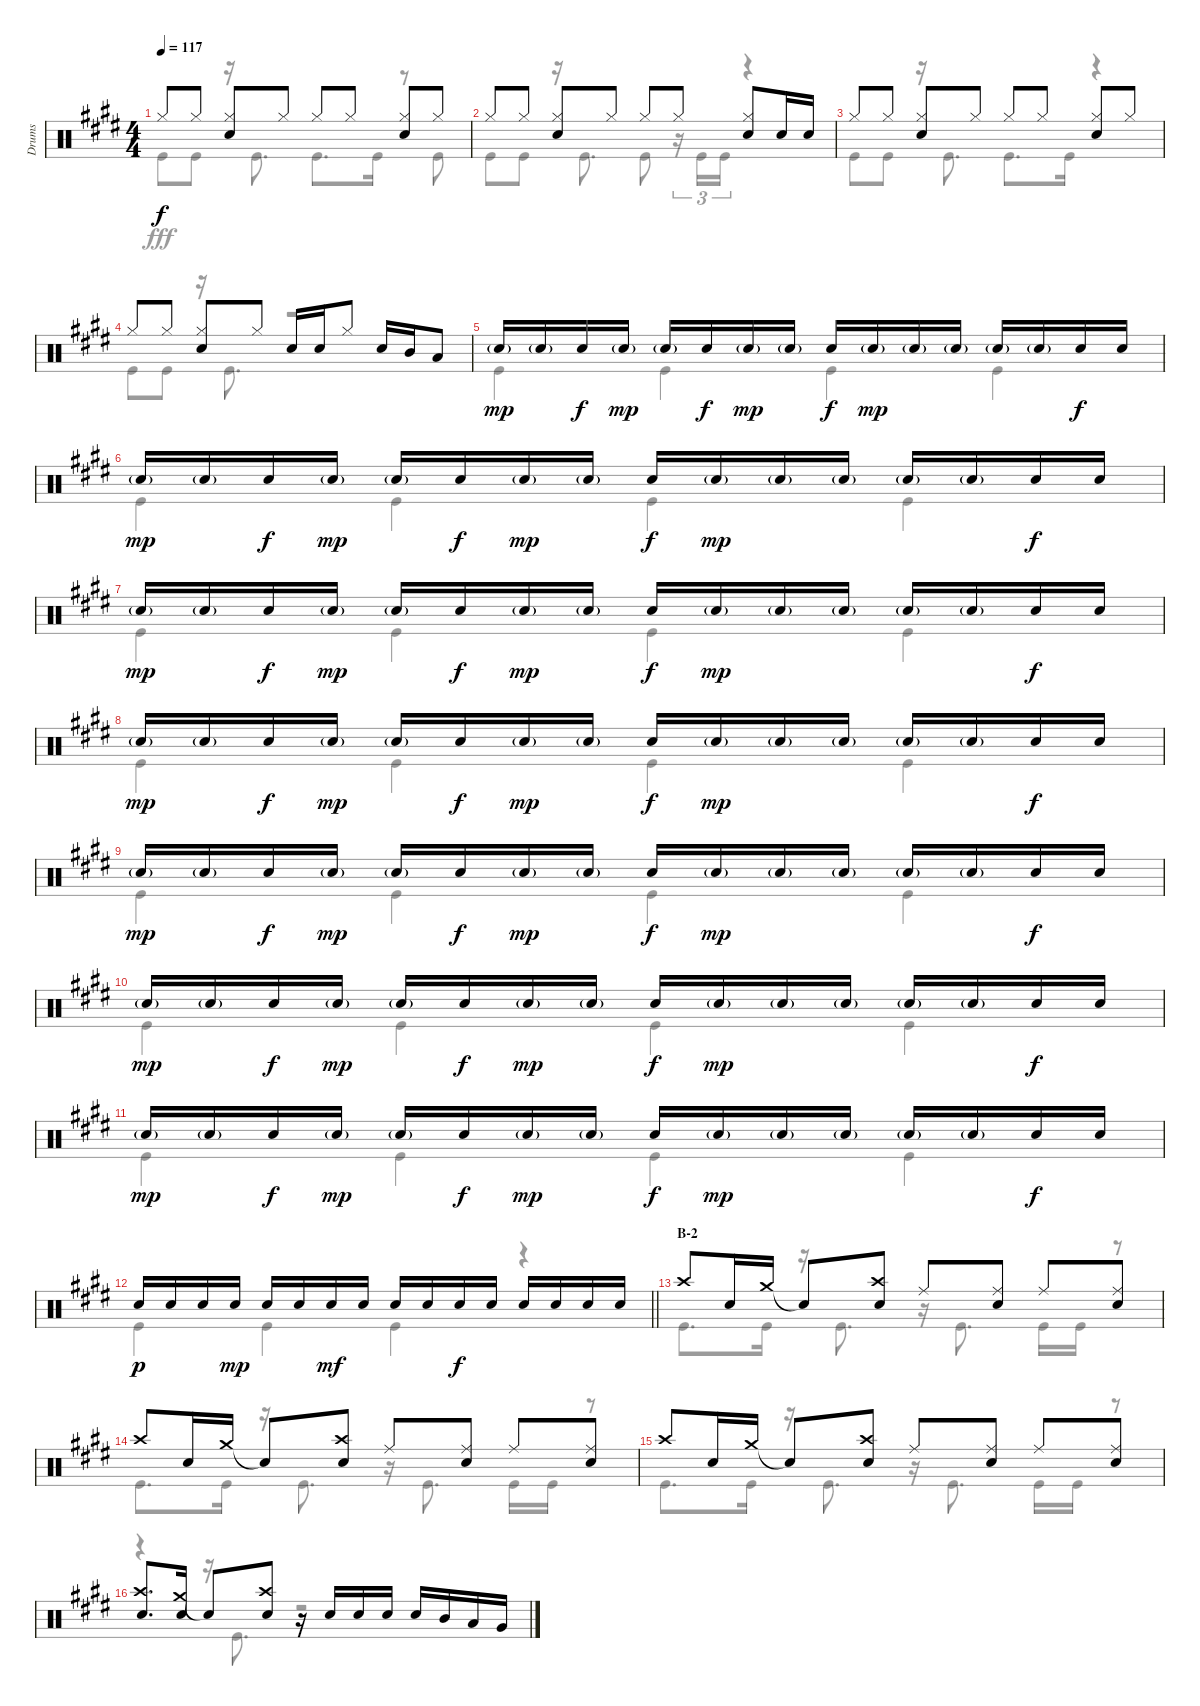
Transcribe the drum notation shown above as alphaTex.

\track ("Drums" "Drums") {instrument percussion}
\staff {score}
\articulation defaults
\voice
\ts (4 4)
\tempo 117
\clef neutral
\ks e "Hi-Hat (closed)".8{dy f} "Hi-Hat (closed)".8
("Hi-Hat (closed)" "Snare (hit) 2").8 "Hi-Hat (closed)".8 "Hi-Hat (closed)".8 "Hi-Hat (closed)".8 ("Hi-Hat (closed)" "Snare (hit) 2").8 "Hi-Hat (closed)".8 |
"Hi-Hat (closed)".8 "Hi-Hat (closed)".8 ("Hi-Hat (closed)" "Snare (hit) 2").8 "Hi-Hat (closed)".8 "Hi-Hat (closed)".8 "Hi-Hat (closed)".8 ("Hi-Hat (closed)" "Snare (hit) 2").8 "Snare (hit) 2".16 "Snare (hit) 2".16 |
"Hi-Hat (closed)".8 "Hi-Hat (closed)".8 ("Hi-Hat (closed)" "Snare (hit) 2").8 "Hi-Hat (closed)".8 "Hi-Hat (closed)".8 "Hi-Hat (closed)".8 ("Hi-Hat (closed)" "Snare (hit) 2").8 "Hi-Hat (closed)".8 |
"Hi-Hat (closed)".8 "Hi-Hat (closed)".8 ("Hi-Hat (closed)" "Snare (hit) 2").8 "Hi-Hat (closed)".8 "Snare (hit) 2".16 "Snare (hit) 2".16 "Hi-Hat (closed)".8 "Snare (hit) 2".16 "Mid Tom (hit)".16 "Low Tom (hit)".8 |
"Snare (hit) 2"{g}.16{dy mp} "Snare (hit) 2"{g}.16 "Snare (hit) 2".16{dy f} "Snare (hit) 2"{g}.16{dy mp} "Snare (hit) 2"{g}.16 "Snare (hit) 2".16{dy f} "Snare (hit) 2"{g}.16{dy mp} "Snare (hit) 2"{g}.16 "Snare (hit) 2".16{dy f} "Snare (hit) 2"{g}.16{dy mp} "Snare (hit) 2"{g}.16 "Snare (hit) 2"{g}.16 "Snare (hit) 2"{g}.16 "Snare (hit) 2"{g}.16 "Snare (hit) 2".16{dy f} "Snare (hit) 2".16 |
"Snare (hit) 2"{g}.16{dy mp} "Snare (hit) 2"{g}.16 "Snare (hit) 2".16{dy f} "Snare (hit) 2"{g}.16{dy mp} "Snare (hit) 2"{g}.16 "Snare (hit) 2".16{dy f} "Snare (hit) 2"{g}.16{dy mp} "Snare (hit) 2"{g}.16 "Snare (hit) 2".16{dy f} "Snare (hit) 2"{g}.16{dy mp} "Snare (hit) 2"{g}.16 "Snare (hit) 2"{g}.16 "Snare (hit) 2"{g}.16 "Snare (hit) 2"{g}.16 "Snare (hit) 2".16{dy f} "Snare (hit) 2".16 |
"Snare (hit) 2"{g}.16{dy mp} "Snare (hit) 2"{g}.16 "Snare (hit) 2".16{dy f} "Snare (hit) 2"{g}.16{dy mp} "Snare (hit) 2"{g}.16 "Snare (hit) 2".16{dy f} "Snare (hit) 2"{g}.16{dy mp} "Snare (hit) 2"{g}.16 "Snare (hit) 2".16{dy f} "Snare (hit) 2"{g}.16{dy mp} "Snare (hit) 2"{g}.16 "Snare (hit) 2"{g}.16 "Snare (hit) 2"{g}.16 "Snare (hit) 2"{g}.16 "Snare (hit) 2".16{dy f} "Snare (hit) 2".16 |
"Snare (hit) 2"{g}.16{dy mp} "Snare (hit) 2"{g}.16 "Snare (hit) 2".16{dy f} "Snare (hit) 2"{g}.16{dy mp} "Snare (hit) 2"{g}.16 "Snare (hit) 2".16{dy f} "Snare (hit) 2"{g}.16{dy mp} "Snare (hit) 2"{g}.16 "Snare (hit) 2".16{dy f} "Snare (hit) 2"{g}.16{dy mp} "Snare (hit) 2"{g}.16 "Snare (hit) 2"{g}.16 "Snare (hit) 2"{g}.16 "Snare (hit) 2"{g}.16 "Snare (hit) 2".16{dy f} "Snare (hit) 2".16 |
"Snare (hit) 2"{g}.16{dy mp} "Snare (hit) 2"{g}.16 "Snare (hit) 2".16{dy f} "Snare (hit) 2"{g}.16{dy mp} "Snare (hit) 2"{g}.16 "Snare (hit) 2".16{dy f} "Snare (hit) 2"{g}.16{dy mp} "Snare (hit) 2"{g}.16 "Snare (hit) 2".16{dy f} "Snare (hit) 2"{g}.16{dy mp} "Snare (hit) 2"{g}.16 "Snare (hit) 2"{g}.16 "Snare (hit) 2"{g}.16 "Snare (hit) 2"{g}.16 "Snare (hit) 2".16{dy f} "Snare (hit) 2".16 |
"Snare (hit) 2"{g}.16{dy mp} "Snare (hit) 2"{g}.16 "Snare (hit) 2".16{dy f} "Snare (hit) 2"{g}.16{dy mp} "Snare (hit) 2"{g}.16 "Snare (hit) 2".16{dy f} "Snare (hit) 2"{g}.16{dy mp} "Snare (hit) 2"{g}.16 "Snare (hit) 2".16{dy f} "Snare (hit) 2"{g}.16{dy mp} "Snare (hit) 2"{g}.16 "Snare (hit) 2"{g}.16 "Snare (hit) 2"{g}.16 "Snare (hit) 2"{g}.16 "Snare (hit) 2".16{dy f} "Snare (hit) 2".16 |
"Snare (hit) 2"{g}.16{dy mp} "Snare (hit) 2"{g}.16 "Snare (hit) 2".16{dy f} "Snare (hit) 2"{g}.16{dy mp} "Snare (hit) 2"{g}.16 "Snare (hit) 2".16{dy f} "Snare (hit) 2"{g}.16{dy mp} "Snare (hit) 2"{g}.16 "Snare (hit) 2".16{dy f} "Snare (hit) 2"{g}.16{dy mp} "Snare (hit) 2"{g}.16 "Snare (hit) 2"{g}.16 "Snare (hit) 2"{g}.16 "Snare (hit) 2"{g}.16 "Snare (hit) 2".16{dy f} "Snare (hit) 2".16 |
\barLineRight lightlight "Snare (hit) 2".16{dy p} "Snare (hit) 2".16 "Snare (hit) 2".16 "Snare (hit) 2".16{dy mp} "Snare (hit) 2".16 "Snare (hit) 2".16 "Snare (hit) 2".16{dy mf} "Snare (hit) 2".16 "Snare (hit) 2".16 "Snare (hit) 2".16 "Snare (hit) 2".16{dy f} "Snare (hit) 2".16 "Snare (hit) 2".16 "Snare (hit) 2".16 "Snare (hit) 2".16 "Snare (hit) 2".16
|
\section ("" "B-2")
"Crash high (hit)".8 "Snare (hit) 2".16 "Crash medium (hit)".16 "Snare (hit)"{t}.8 ("Crash high (hit)" "Snare (hit) 2").8 "Ride (middle)".8 ("Ride (middle)" "Snare (hit) 2").8 "Ride (middle)".8 ("Ride (middle)" "Snare (hit) 2").8 |
"Crash high (hit)".8 "Snare (hit) 2".16 "Crash medium (hit)".16 "Snare (hit)"{t}.8 ("Crash high (hit)" "Snare (hit) 2").8 "Ride (middle)".8 ("Ride (middle)" "Snare (hit) 2").8 "Ride (middle)".8 ("Ride (middle)" "Snare (hit) 2").8 |
"Crash high (hit)".8 "Snare (hit) 2".16 "Crash medium (hit)".16 "Snare (hit)"{t}.8 ("Crash high (hit)" "Snare (hit) 2").8 "Ride (middle)".8 ("Ride (middle)" "Snare (hit) 2").8 "Ride (middle)".8 ("Ride (middle)" "Snare (hit) 2").8 |
("Crash high (hit)" "Snare (hit) 2").8{d} ("Crash medium (hit)" "Snare (hit) 2").16 "Snare (hit)"{t}.8 ("Crash high (hit)" "Snare (hit) 2").8 r.16 "Snare (hit) 2".16 "Snare (hit) 2".16 "Snare (hit) 2".16 "Snare (hit) 2".16 "Mid Tom (hit)".16 "Low Tom (hit)".16 "Very Low Tom (hit)".16
\voice
\clef neutral
\ottava regular
\simile none
\ks e "Kick (hit)".8{dy fff} "Kick (hit)".8
r.16 "Kick (hit)".8{d} "Kick (hit)".8{d} "Kick (hit)".16 r.8 "Kick (hit)".8 |
"Kick (hit)".8 "Kick (hit)".8 r.16 "Kick (hit)".8{d} "Kick (hit)".8 r.16{tu (3 2)} "Kick (hit)".16{tu (3 2)} "Kick (hit)".16{tu (3 2)} r.4 |
"Kick (hit)".8 "Kick (hit)".8 r.16 "Kick (hit)".8{d} "Kick (hit)".8{d} "Kick (hit)".16 r.4 |
"Kick (hit)".8 "Kick (hit)".8 r.16 "Kick (hit)".8{d} r.2 |
"Kick (hit)".4 "Kick (hit)".4 "Kick (hit)".4 "Kick (hit)".4 |
"Kick (hit)".4 "Kick (hit)".4 "Kick (hit)".4 "Kick (hit)".4 |
"Kick (hit)".4 "Kick (hit)".4 "Kick (hit)".4 "Kick (hit)".4 |
"Kick (hit)".4 "Kick (hit)".4 "Kick (hit)".4 "Kick (hit)".4 |
"Kick (hit)".4 "Kick (hit)".4 "Kick (hit)".4 "Kick (hit)".4 |
"Kick (hit)".4 "Kick (hit)".4 "Kick (hit)".4 "Kick (hit)".4 |
"Kick (hit)".4 "Kick (hit)".4 "Kick (hit)".4 "Kick (hit)".4 |
\barLineRight lightlight "Kick (hit)".4 "Kick (hit)".4 "Kick (hit)".4
r.4 |
"Kick (hit)".8{d} "Kick (hit)".16 r.16 "Kick (hit)".8{d} r.16 "Kick (hit)".8{d} "Kick (hit)".16 "Kick (hit)".16 r.8 |
"Kick (hit)".8{d} "Kick (hit)".16 r.16 "Kick (hit)".8{d} r.16 "Kick (hit)".8{d} "Kick (hit)".16 "Kick (hit)".16 r.8 |
"Kick (hit)".8{d} "Kick (hit)".16 r.16 "Kick (hit)".8{d} r.16 "Kick (hit)".8{d} "Kick (hit)".16 "Kick (hit)".16 r.8 |
r.4 r.16 "Kick (hit)".8{d} r.2
